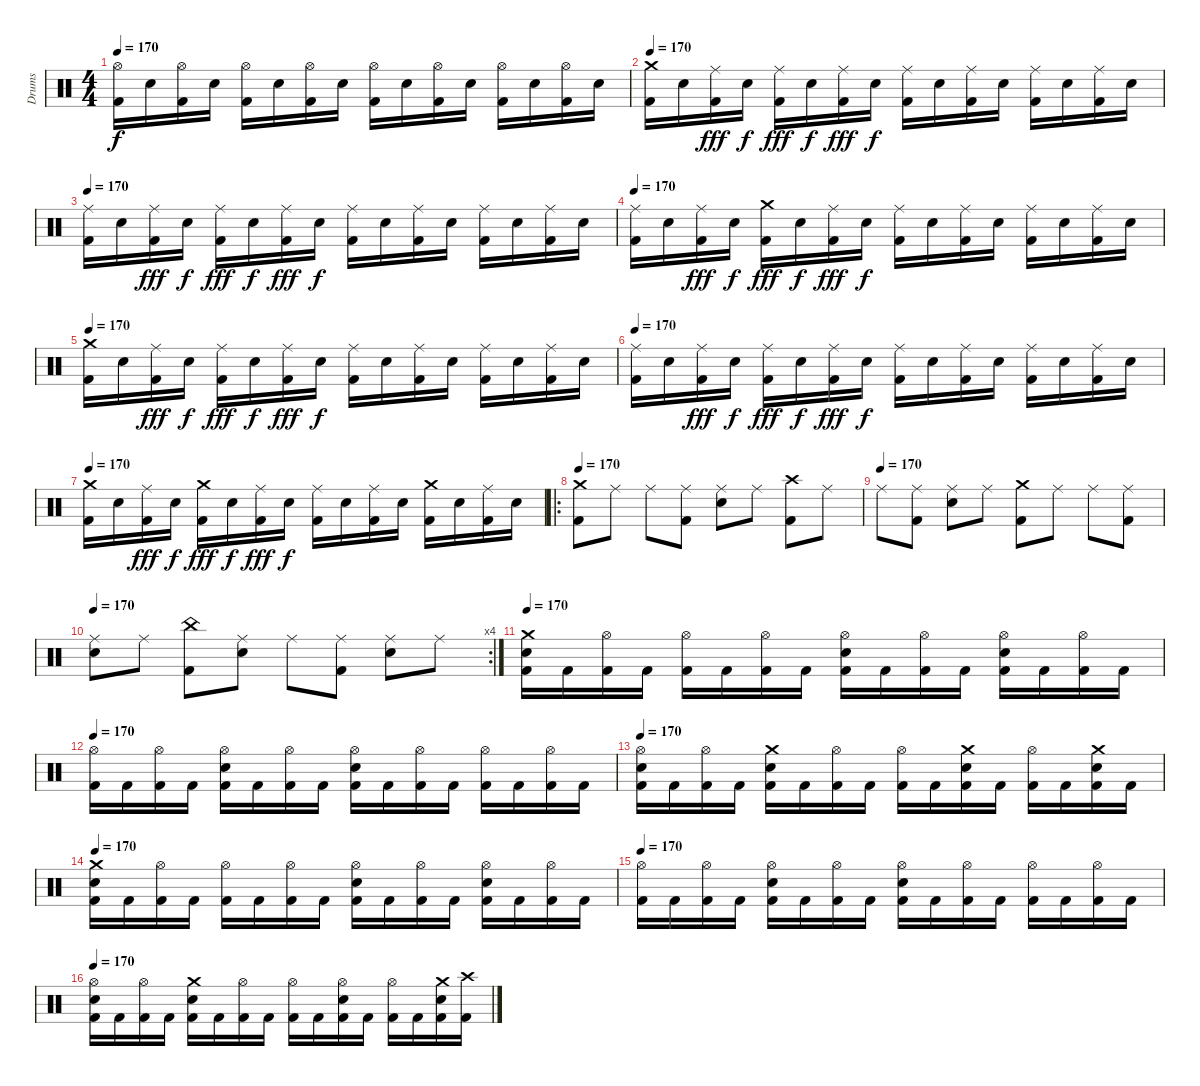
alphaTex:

\track ("Drums" "Drums") {instrument percussion}
\staff {score}
\articulation defaults
\ts (4 4)
\tempo 170
\clef neutral
\ks c
("Hi-Hat (open)" "Kick (hit) 2").16{dy f} "Snare (hit) 2".16 ("Hi-Hat (open)" "Kick (hit) 2").16 "Snare (hit) 2".16 ("Hi-Hat (open)" "Kick (hit) 2").16 "Snare (hit) 2".16 ("Hi-Hat (open)" "Kick (hit) 2").16 "Snare (hit) 2".16 ("Hi-Hat (open)" "Kick (hit) 2").16 "Snare (hit) 2".16 ("Hi-Hat (open)" "Kick (hit) 2").16 "Snare (hit) 2".16 ("Hi-Hat (open)" "Kick (hit) 2").16 "Snare (hit) 2".16 ("Hi-Hat (open)" "Kick (hit) 2").16 "Snare (hit) 2".16 |
\tempo 170
("Crash medium (hit)" "Kick (hit) 2").16 "Snare (hit) 2".16 ("Ride (middle)" "Kick (hit) 2").16{dy fff} "Snare (hit) 2".16{dy f} ("Ride (middle)" "Kick (hit) 2").16{dy fff} "Snare (hit) 2".16{dy f} ("Ride (middle)" "Kick (hit) 2").16{dy fff} "Snare (hit) 2".16{dy f} ("Ride (middle)" "Kick (hit) 2").16 "Snare (hit) 2".16 ("Ride (middle)" "Kick (hit) 2").16 "Snare (hit) 2".16 ("Ride (middle)" "Kick (hit) 2").16 "Snare (hit) 2".16 ("Ride (middle)" "Kick (hit) 2").16 "Snare (hit) 2".16 |
\tempo 170
("Ride (middle)" "Kick (hit) 2").16 "Snare (hit) 2".16 ("Ride (middle)" "Kick (hit) 2").16{dy fff} "Snare (hit) 2".16{dy f} ("Ride (middle)" "Kick (hit) 2").16{dy fff} "Snare (hit) 2".16{dy f} ("Ride (middle)" "Kick (hit) 2").16{dy fff} "Snare (hit) 2".16{dy f} ("Ride (middle)" "Kick (hit) 2").16 "Snare (hit) 2".16 ("Ride (middle)" "Kick (hit) 2").16 "Snare (hit) 2".16 ("Ride (middle)" "Kick (hit) 2").16 "Snare (hit) 2".16 ("Ride (middle)" "Kick (hit) 2").16 "Snare (hit) 2".16 |
\tempo 170
("Ride (middle)" "Kick (hit) 2").16 "Snare (hit) 2".16 ("Ride (middle)" "Kick (hit) 2").16{dy fff} "Snare (hit) 2".16{dy f} ("Crash medium (hit)" "Kick (hit) 2").16{dy fff} "Snare (hit) 2".16{dy f} ("Ride (middle)" "Kick (hit) 2").16{dy fff} "Snare (hit) 2".16{dy f} ("Ride (middle)" "Kick (hit) 2").16 "Snare (hit) 2".16 ("Ride (middle)" "Kick (hit) 2").16 "Snare (hit) 2".16 ("Ride (middle)" "Kick (hit) 2").16 "Snare (hit) 2".16 ("Ride (middle)" "Kick (hit) 2").16 "Snare (hit) 2".16 |
\tempo 170
("Crash medium (hit)" "Kick (hit) 2").16 "Snare (hit) 2".16 ("Ride (middle)" "Kick (hit) 2").16{dy fff} "Snare (hit) 2".16{dy f} ("Ride (middle)" "Kick (hit) 2").16{dy fff} "Snare (hit) 2".16{dy f} ("Ride (middle)" "Kick (hit) 2").16{dy fff} "Snare (hit) 2".16{dy f} ("Ride (middle)" "Kick (hit) 2").16 "Snare (hit) 2".16 ("Ride (middle)" "Kick (hit) 2").16 "Snare (hit) 2".16 ("Ride (middle)" "Kick (hit) 2").16 "Snare (hit) 2".16 ("Ride (middle)" "Kick (hit) 2").16 "Snare (hit) 2".16 |
\tempo 170
("Ride (middle)" "Kick (hit) 2").16 "Snare (hit) 2".16 ("Ride (middle)" "Kick (hit) 2").16{dy fff} "Snare (hit) 2".16{dy f} ("Ride (middle)" "Kick (hit) 2").16{dy fff} "Snare (hit) 2".16{dy f} ("Ride (middle)" "Kick (hit) 2").16{dy fff} "Snare (hit) 2".16{dy f} ("Ride (middle)" "Kick (hit) 2").16 "Snare (hit) 2".16 ("Ride (middle)" "Kick (hit) 2").16 "Snare (hit) 2".16 ("Ride (middle)" "Kick (hit) 2").16 "Snare (hit) 2".16 ("Ride (middle)" "Kick (hit) 2").16 "Snare (hit) 2".16 |
\tempo 170
("Crash medium (hit)" "Kick (hit) 2").16 "Snare (hit) 2".16 ("Ride (middle)" "Kick (hit) 2").16{dy fff} "Snare (hit) 2".16{dy f} ("Crash medium (hit)" "Kick (hit) 2").16{dy fff} "Snare (hit) 2".16{dy f} ("Ride (middle)" "Kick (hit) 2").16{dy fff} "Snare (hit) 2".16{dy f} ("Ride (middle)" "Kick (hit) 2").16 "Snare (hit) 2".16 ("Ride (middle)" "Kick (hit) 2").16 "Snare (hit) 2".16 ("Crash medium (hit)" "Kick (hit) 2").16 "Snare (hit) 2".16 ("Ride (middle)" "Kick (hit) 2").16 "Snare (hit) 2".16 |
\ro
\tempo 170
("Crash medium (hit)" "Kick (hit) 2").8 "Ride (middle)".8 "Ride (middle)".8 ("Ride (middle)" "Kick (hit) 2").8 ("Ride (middle)" "Snare (hit) 2").8 "Ride (middle)".8 ("Crash high (hit)" "Kick (hit) 2").8 "Ride (middle)".8 |
\tempo (170)
"Ride (middle)".8 ("Ride (middle)" "Kick (hit) 2").8 ("Ride (middle)" "Snare (hit) 2").8 "Ride (middle)".8 ("Crash medium (hit)" "Kick (hit) 2").8 "Ride (middle)".8 "Ride (middle)".8 ("Ride (middle)" "Kick (hit) 2").8 |
\rc 4
\tempo 170
("Ride (middle)" "Snare (hit) 2").8 "Ride (middle)".8 ("China (hit)" "Kick (hit) 2").8 ("Ride (middle)" "Snare (hit) 2").8 "Ride (middle)".8 ("Ride (middle)" "Kick (hit) 2").8 ("Ride (middle)" "Snare (hit) 2").8 "Ride (middle)".8 |
\tempo 170
("Crash medium (hit)" "Snare (hit) 2" "Kick (hit) 2").16 "Kick (hit) 2".16 ("Hi-Hat (open)" "Kick (hit) 2").16 "Kick (hit) 2".16 ("Hi-Hat (open)" "Kick (hit) 2").16 "Kick (hit) 2".16 ("Hi-Hat (open)" "Kick (hit) 2").16 "Kick (hit) 2".16 ("Hi-Hat (open)" "Snare (hit) 2" "Kick (hit) 2").16 "Kick (hit) 2".16 ("Hi-Hat (open)" "Kick (hit) 2").16 "Kick (hit) 2".16 ("Hi-Hat (open)" "Snare (hit) 2" "Kick (hit) 2").16 "Kick (hit) 2".16 ("Hi-Hat (open)" "Kick (hit) 2").16 "Kick (hit) 2".16 |
\tempo 170
("Hi-Hat (open)" "Kick (hit) 2").16 "Kick (hit) 2".16 ("Hi-Hat (open)" "Kick (hit) 2").16 "Kick (hit) 2".16 ("Hi-Hat (open)" "Snare (hit) 2" "Kick (hit) 2").16 "Kick (hit) 2".16 ("Hi-Hat (open)" "Kick (hit) 2").16 "Kick (hit) 2".16 ("Hi-Hat (open)" "Snare (hit) 2" "Kick (hit) 2").16 "Kick (hit) 2".16 ("Hi-Hat (open)" "Kick (hit) 2").16 "Kick (hit) 2".16 ("Hi-Hat (open)" "Kick (hit) 2").16 "Kick (hit) 2".16 ("Hi-Hat (open)" "Kick (hit) 2").16 "Kick (hit) 2".16 |
\tempo 170
("Hi-Hat (open)" "Snare (hit) 2" "Kick (hit) 2").16 "Kick (hit) 2".16 ("Hi-Hat (open)" "Kick (hit) 2").16 "Kick (hit) 2".16 ("Crash medium (hit)" "Snare (hit) 2" "Kick (hit) 2").16 "Kick (hit) 2".16 ("Hi-Hat (open)" "Kick (hit) 2").16 "Kick (hit) 2".16 ("Hi-Hat (open)" "Kick (hit) 2").16 "Kick (hit) 2".16 ("Crash medium (hit)" "Snare (hit) 2" "Kick (hit) 2").16 "Kick (hit) 2".16 ("Hi-Hat (open)" "Kick (hit) 2").16 "Kick (hit) 2".16 ("Crash medium (hit)" "Snare (hit) 2" "Kick (hit) 2").16 "Kick (hit) 2".16 |
\tempo 170
("Crash medium (hit)" "Snare (hit) 2" "Kick (hit) 2").16 "Kick (hit) 2".16 ("Hi-Hat (open)" "Kick (hit) 2").16 "Kick (hit) 2".16 ("Hi-Hat (open)" "Kick (hit) 2").16 "Kick (hit) 2".16 ("Hi-Hat (open)" "Kick (hit) 2").16 "Kick (hit) 2".16 ("Hi-Hat (open)" "Snare (hit) 2" "Kick (hit) 2").16 "Kick (hit) 2".16 ("Hi-Hat (open)" "Kick (hit) 2").16 "Kick (hit) 2".16 ("Hi-Hat (open)" "Snare (hit) 2" "Kick (hit) 2").16 "Kick (hit) 2".16 ("Hi-Hat (open)" "Kick (hit) 2").16 "Kick (hit) 2".16 |
\tempo 170
("Hi-Hat (open)" "Kick (hit) 2").16 "Kick (hit) 2".16 ("Hi-Hat (open)" "Kick (hit) 2").16 "Kick (hit) 2".16 ("Hi-Hat (open)" "Snare (hit) 2" "Kick (hit) 2").16 "Kick (hit) 2".16 ("Hi-Hat (open)" "Kick (hit) 2").16 "Kick (hit) 2".16 ("Hi-Hat (open)" "Snare (hit) 2" "Kick (hit) 2").16 "Kick (hit) 2".16 ("Hi-Hat (open)" "Kick (hit) 2").16 "Kick (hit) 2".16 ("Hi-Hat (open)" "Kick (hit) 2").16 "Kick (hit) 2".16 ("Hi-Hat (open)" "Kick (hit) 2").16 "Kick (hit) 2".16 |
\tempo 170
("Hi-Hat (open)" "Snare (hit) 2" "Kick (hit) 2").16 "Kick (hit) 2".16 ("Hi-Hat (open)" "Kick (hit) 2").16 "Kick (hit) 2".16 ("Crash medium (hit)" "Snare (hit) 2" "Kick (hit) 2").16 "Kick (hit) 2".16 ("Hi-Hat (open)" "Kick (hit) 2").16 "Kick (hit) 2".16 ("Hi-Hat (open)" "Kick (hit) 2").16 "Kick (hit) 2".16 ("Hi-Hat (open)" "Snare (hit) 2" "Kick (hit) 2").16 "Kick (hit) 2".16 ("Hi-Hat (open)" "Kick (hit) 2").16 "Kick (hit) 2".16 ("Crash medium (hit)" "Snare (hit) 2" "Kick (hit) 2").16 ("Crash high (hit)" "Kick (hit) 2").16
